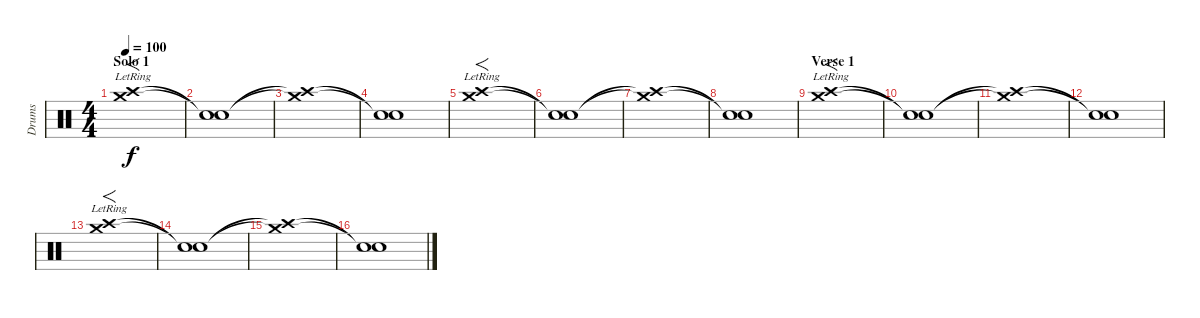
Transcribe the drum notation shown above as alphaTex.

\track ("Drums" "Drums") {instrument percussion}
\staff {score}
\articulation defaults
\ts (4 4)
\section ("" "Solo 1")
\tempo 100
\clef neutral
\ks c
("Crash medium (hit)"{lr} "Crash high (hit)"{lr}).1{f dy f} |
("Snare (hit)"{t} "Snare (hit)"{t}).1 |
("Crash medium (hit)"{t} "Crash high (hit)"{t}).1 |
("Snare (hit)"{t} "Snare (hit)"{t}).1 |
("Crash medium (hit)"{lr} "Crash high (hit)"{lr}).1{f} |
("Snare (hit)"{t} "Snare (hit)"{t}).1 |
("Crash medium (hit)"{t} "Crash high (hit)"{t}).1 |
("Snare (hit)"{t} "Snare (hit)"{t}).1 |
\section ("" "Verse 1")
("Crash medium (hit)"{lr} "Crash high (hit)"{lr}).1{f} |
("Snare (hit)"{t} "Snare (hit)"{t}).1 |
("Crash medium (hit)"{t} "Crash high (hit)"{t}).1 |
("Snare (hit)"{t} "Snare (hit)"{t}).1 |
("Crash medium (hit)"{lr} "Crash high (hit)"{lr}).1{f} |
("Snare (hit)"{t} "Snare (hit)"{t}).1 |
("Crash medium (hit)"{t} "Crash high (hit)"{t}).1 |
("Snare (hit)"{t} "Snare (hit)"{t}).1
